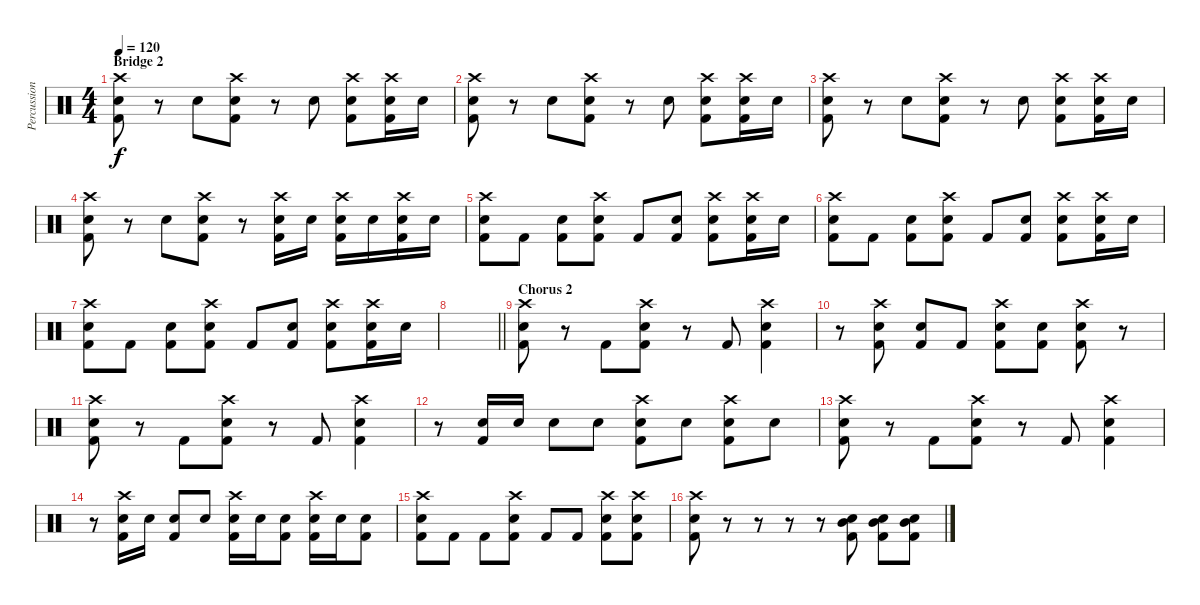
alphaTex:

\track ("Percussion" "Percussion") {instrument percussion}
\staff {score}
\articulation defaults
\ts (4 4)
\section ("" "Bridge 2")
\tempo 120
\clef neutral
\ks c
("Crash high (hit)" "Electric Snare (hit)" "Kick (hit) 2").8{dy f} r.8 "Electric Snare (hit)".8 ("Crash high (hit)" "Electric Snare (hit)" "Kick (hit) 2").8 r.8 "Electric Snare (hit)".8 ("Crash high (hit)" "Electric Snare (hit)" "Kick (hit) 2").8 ("Crash high (hit)" "Electric Snare (hit)" "Kick (hit) 2").16 "Electric Snare (hit)".16 |
("Crash high (hit)" "Electric Snare (hit)" "Kick (hit) 2").8 r.8 "Electric Snare (hit)".8 ("Crash high (hit)" "Electric Snare (hit)" "Kick (hit) 2").8 r.8 "Electric Snare (hit)".8 ("Crash high (hit)" "Electric Snare (hit)" "Kick (hit) 2").8 ("Crash high (hit)" "Electric Snare (hit)" "Kick (hit) 2").16 "Electric Snare (hit)".16 |
("Crash high (hit)" "Electric Snare (hit)" "Kick (hit) 2").8 r.8 "Electric Snare (hit)".8 ("Crash high (hit)" "Electric Snare (hit)" "Kick (hit) 2").8 r.8 "Electric Snare (hit)".8 ("Crash high (hit)" "Electric Snare (hit)" "Kick (hit) 2").8 ("Crash high (hit)" "Electric Snare (hit)" "Kick (hit) 2").16 "Electric Snare (hit)".16 |
("Crash high (hit)" "Electric Snare (hit)" "Kick (hit) 2").8 r.8 "Electric Snare (hit)".8 ("Crash high (hit)" "Electric Snare (hit)" "Kick (hit) 2").8 r.8 ("Crash high (hit)" "Electric Snare (hit)" "Kick (hit) 2").16 "Electric Snare (hit)".16 ("Crash high (hit)" "Electric Snare (hit)" "Kick (hit) 2").16 "Electric Snare (hit)".16 ("Crash high (hit)" "Electric Snare (hit)" "Kick (hit) 2").16 "Electric Snare (hit)".16 |
("Crash high (hit)" "Electric Snare (hit)" "Kick (hit) 2").8 "Kick (hit) 2".8 ("Electric Snare (hit)" "Kick (hit) 2").8 ("Crash high (hit)" "Electric Snare (hit)" "Kick (hit) 2").8 "Kick (hit) 2".8 ("Electric Snare (hit)" "Kick (hit) 2").8 ("Crash high (hit)" "Electric Snare (hit)" "Kick (hit) 2").8 ("Crash high (hit)" "Electric Snare (hit)" "Kick (hit) 2").16 "Electric Snare (hit)".16 |
("Crash high (hit)" "Electric Snare (hit)" "Kick (hit) 2").8 "Kick (hit) 2".8 ("Electric Snare (hit)" "Kick (hit) 2").8 ("Crash high (hit)" "Electric Snare (hit)" "Kick (hit) 2").8 "Kick (hit) 2".8 ("Electric Snare (hit)" "Kick (hit) 2").8 ("Crash high (hit)" "Electric Snare (hit)" "Kick (hit) 2").8 ("Crash high (hit)" "Electric Snare (hit)" "Kick (hit) 2").16 "Electric Snare (hit)".16 |
("Crash high (hit)" "Electric Snare (hit)" "Kick (hit) 2").8 "Kick (hit) 2".8 ("Electric Snare (hit)" "Kick (hit) 2").8 ("Crash high (hit)" "Electric Snare (hit)" "Kick (hit) 2").8 "Kick (hit) 2".8 ("Electric Snare (hit)" "Kick (hit) 2").8 ("Crash high (hit)" "Electric Snare (hit)" "Kick (hit) 2").8 ("Crash high (hit)" "Electric Snare (hit)" "Kick (hit) 2").16 "Electric Snare (hit)".16 |
\barLineRight lightlight
|
\section ("" "Chorus 2")
("Crash high (hit)" "Electric Snare (hit)" "Kick (hit) 2").8 r.8 "Kick (hit) 2".8 ("Crash high (hit)" "Electric Snare (hit)" "Kick (hit) 2").8 r.8 "Kick (hit) 2".8 ("Crash high (hit)" "Electric Snare (hit)" "Kick (hit) 2").4 |
r.8 ("Crash high (hit)" "Electric Snare (hit)" "Kick (hit) 2").8 ("Electric Snare (hit)" "Kick (hit) 2").8 "Kick (hit) 2".8 ("Crash high (hit)" "Electric Snare (hit)" "Kick (hit) 2").8 ("Electric Snare (hit)" "Kick (hit) 2").8 ("Crash high (hit)" "Electric Snare (hit)" "Kick (hit) 2").8 r.8 |
("Crash high (hit)" "Electric Snare (hit)" "Kick (hit) 2").8 r.8 "Kick (hit) 2".8 ("Crash high (hit)" "Electric Snare (hit)" "Kick (hit) 2").8 r.8 "Kick (hit) 2".8 ("Crash high (hit)" "Electric Snare (hit)" "Kick (hit) 2").4 |
r.8 ("Electric Snare (hit)" "Kick (hit) 2").16 "Electric Snare (hit)".16 "Electric Snare (hit)".8 "Electric Snare (hit)".8 ("Crash high (hit)" "Electric Snare (hit)" "Kick (hit) 2").8 "Electric Snare (hit)".8 ("Crash high (hit)" "Electric Snare (hit)" "Kick (hit) 2").8 "Electric Snare (hit)".8 |
("Crash high (hit)" "Electric Snare (hit)" "Kick (hit) 2").8 r.8 "Kick (hit) 2".8 ("Crash high (hit)" "Electric Snare (hit)" "Kick (hit) 2").8 r.8 "Kick (hit) 2".8 ("Crash high (hit)" "Electric Snare (hit)" "Kick (hit) 2").4 |
r.8 ("Crash high (hit)" "Electric Snare (hit)" "Kick (hit) 2").16 "Electric Snare (hit)".16 ("Electric Snare (hit)" "Kick (hit) 2").8 "Electric Snare (hit)".8 ("Crash high (hit)" "Electric Snare (hit)" "Kick (hit) 2").16 "Electric Snare (hit)".16 ("Electric Snare (hit)" "Kick (hit) 2").8 ("Crash high (hit)" "Electric Snare (hit)" "Kick (hit) 2").16 "Electric Snare (hit)".16 ("Electric Snare (hit)" "Kick (hit) 2").8 |
("Crash high (hit)" "Electric Snare (hit)" "Kick (hit) 2").8 "Kick (hit) 2".8 "Kick (hit) 2".8 ("Crash high (hit)" "Electric Snare (hit)" "Kick (hit) 2").8 "Kick (hit) 2".8 "Kick (hit) 2".8 ("Crash high (hit)" "Electric Snare (hit)" "Kick (hit) 2").8 ("Crash high (hit)" "Electric Snare (hit)" "Kick (hit) 2").8 |
("Crash high (hit)" "Electric Snare (hit)" "Kick (hit) 2").8 r.8 r.8 r.8 r.8 ("Mid Tom (hit)" "Electric Snare (hit)" "Kick (hit) 2").8 ("Mid Tom (hit)" "Electric Snare (hit)" "Kick (hit) 2").8 ("Mid Tom (hit)" "Electric Snare (hit)" "Kick (hit) 2").8
